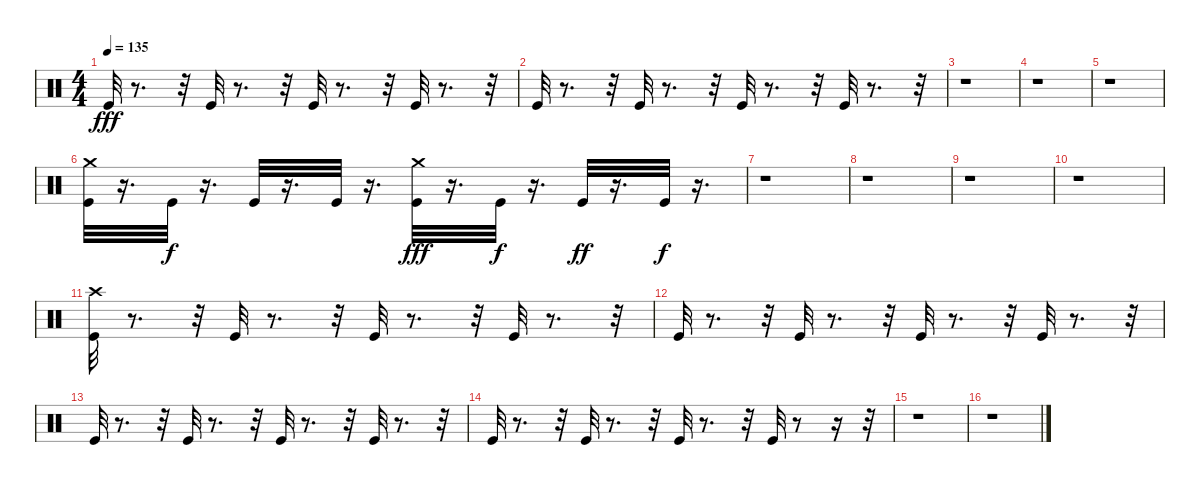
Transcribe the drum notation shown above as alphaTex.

\track "" {instrument percussion}
\staff {score}
\articulation defaults
\ts (4 4)
\tempo 135
\clef neutral
\ks c "Kick (hit)".32{dy fff}
r.8{d} r.32 "Kick (hit)".32 r.8{d} r.32 "Kick (hit)".32 r.8{d} r.32 "Kick (hit)".32 r.8{d} r.32 |
"Kick (hit)".32 r.8{d} r.32 "Kick (hit)".32 r.8{d} r.32 "Kick (hit)".32 r.8{d} r.32 "Kick (hit)".32 r.8{d} r.32 |
r.1 |
r.1 |
r.1 |
("Crash medium (hit)" "Kick (hit)").32 r.16{d} "Kick (hit)".32{dy f} r.16{d} "Kick (hit)".32 r.16{d} "Kick (hit)".32 r.16{d} ("Crash medium (hit)" "Kick (hit)").32{dy fff} r.16{d} "Kick (hit)".32{dy f} r.16{d} "Kick (hit)".32{dy ff} r.16{d} "Kick (hit)".32{dy f} r.16{d} |
r.1 |
r.1 |
r.1 |
r.1 |
("Kick (hit)" "Crash high (hit)").32 r.8{d} r.32 "Kick (hit)".32 r.8{d} r.32 "Kick (hit)".32 r.8{d} r.32 "Kick (hit)".32 r.8{d} r.32 |
"Kick (hit)".32 r.8{d} r.32 "Kick (hit)".32 r.8{d} r.32 "Kick (hit)".32 r.8{d} r.32 "Kick (hit)".32 r.8{d} r.32 |
"Kick (hit)".32 r.8{d} r.32 "Kick (hit)".32 r.8{d} r.32 "Kick (hit)".32 r.8{d} r.32 "Kick (hit)".32 r.8{d} r.32 |
"Kick (hit)".32 r.8{d} r.32 "Kick (hit)".32 r.8{d} r.32 "Kick (hit)".32 r.8{d} r.32 "Kick (hit)".32 r.8 r.16 r.32 |
r.1 |
r.1
